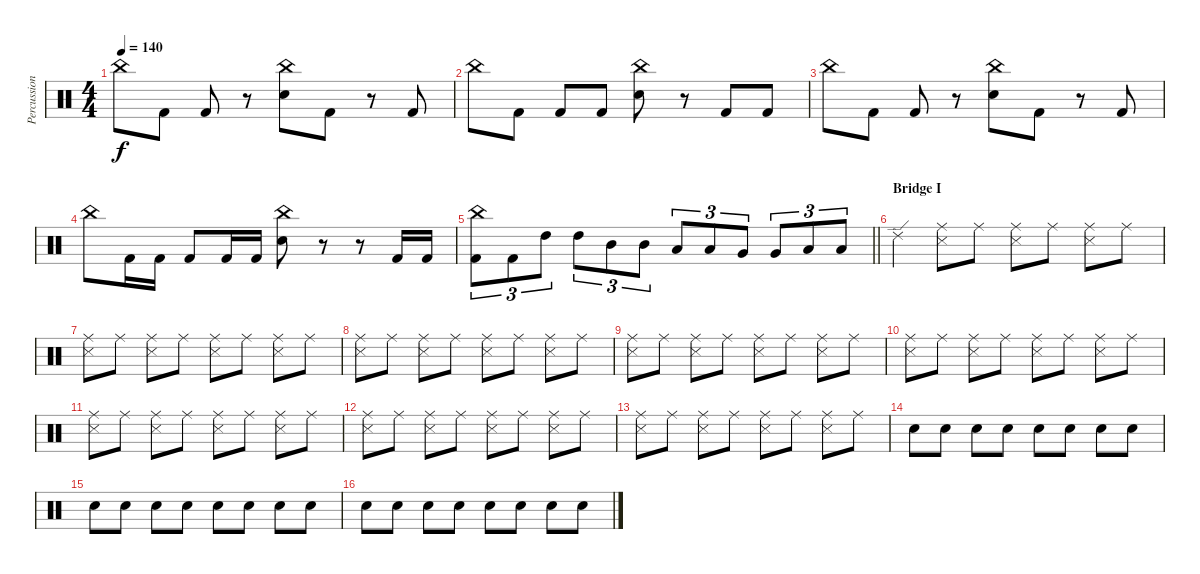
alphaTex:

\track ("Percussion" "Percussion") {instrument percussion}
\staff {score}
\articulation defaults
\ts (4 4)
\tempo 140
\clef neutral
\ks c "China (hit)".8{dy f} "Kick (hit) 2".8 "Kick (hit) 2".8
r.8 ("China (hit)" "Snare (hit) 2").8 "Kick (hit) 2".8 r.8 "Kick (hit) 2".8 |
"China (hit)".8 "Kick (hit) 2".8 "Kick (hit) 2".8 "Kick (hit) 2".8 ("China (hit)" "Snare (hit) 2").8 r.8 "Kick (hit) 2".8 "Kick (hit) 2".8 |
"China (hit)".8 "Kick (hit) 2".8 "Kick (hit) 2".8 r.8 ("China (hit)" "Snare (hit) 2").8 "Kick (hit) 2".8 r.8 "Kick (hit) 2".8 |
"China (hit)".8 "Kick (hit) 2".16 "Kick (hit) 2".16 "Kick (hit) 2".8 "Kick (hit) 2".16 "Kick (hit) 2".16 ("China (hit)" "Snare (hit) 2").8 r.8 r.8 "Kick (hit) 2".16 "Kick (hit) 2".16 |
\barLineRight lightlight
("China (hit)" "Kick (hit) 2").8{tu (3 2)} "Kick (hit) 2".8{tu (3 2)} "High Tom (hit)".8{tu (3 2)} "High Tom (hit)".8{tu (3 2)} "Mid Tom (hit)".8{tu (3 2)} "Mid Tom (hit)".8{tu (3 2)} "Low Tom (hit)".8{tu (3 2)} "Low Tom (hit)".8{tu (3 2)} "Very Low Tom (hit)".8{tu (3 2)} "Very Low Tom (hit)".8{tu (3 2)} "Low Floor Tom (hit)".8{tu (3 2)} "Low Floor Tom (hit)".8{tu (3 2)} |
\section ("" "Bridge I")
"Ride (edge) 2".4{volume 11} ("Ride (middle)" "Snare (side stick) 3").8 "Ride (middle)".8 ("Ride (middle)" "Snare (side stick) 3").8 "Ride (middle)".8 ("Ride (middle)" "Snare (side stick) 3").8 "Ride (middle)".8 |
("Ride (middle)" "Snare (side stick) 3").8 "Ride (middle)".8 ("Ride (middle)" "Snare (side stick) 3").8 "Ride (middle)".8 ("Ride (middle)" "Snare (side stick) 3").8 "Ride (middle)".8 ("Ride (middle)" "Snare (side stick) 3").8 "Ride (middle)".8 |
("Ride (middle)" "Snare (side stick) 3").8 "Ride (middle)".8 ("Ride (middle)" "Snare (side stick) 3").8 "Ride (middle)".8 ("Ride (middle)" "Snare (side stick) 3").8 "Ride (middle)".8 ("Ride (middle)" "Snare (side stick) 3").8 "Ride (middle)".8 |
("Ride (middle)" "Snare (side stick) 3").8 "Ride (middle)".8 ("Ride (middle)" "Snare (side stick) 3").8 "Ride (middle)".8 ("Ride (middle)" "Snare (side stick) 3").8 "Ride (middle)".8 ("Ride (middle)" "Snare (side stick) 3").8 "Ride (middle)".8 |
("Ride (middle)" "Snare (side stick) 3").8 "Ride (middle)".8 ("Ride (middle)" "Snare (side stick) 3").8 "Ride (middle)".8 ("Ride (middle)" "Snare (side stick) 3").8 "Ride (middle)".8 ("Ride (middle)" "Snare (side stick) 3").8 "Ride (middle)".8 |
("Ride (middle)" "Snare (side stick) 3").8 "Ride (middle)".8 ("Ride (middle)" "Snare (side stick) 3").8 "Ride (middle)".8 ("Ride (middle)" "Snare (side stick) 3").8 "Ride (middle)".8 ("Ride (middle)" "Snare (side stick) 3").8 "Ride (middle)".8 |
("Ride (middle)" "Snare (side stick) 3").8 "Ride (middle)".8 ("Ride (middle)" "Snare (side stick) 3").8 "Ride (middle)".8 ("Ride (middle)" "Snare (side stick) 3").8 "Ride (middle)".8 ("Ride (middle)" "Snare (side stick) 3").8 "Ride (middle)".8 |
("Ride (middle)" "Snare (side stick) 3").8 "Ride (middle)".8 ("Ride (middle)" "Snare (side stick) 3").8 "Ride (middle)".8 ("Ride (middle)" "Snare (side stick) 3").8 "Ride (middle)".8 ("Ride (middle)" "Snare (side stick) 3").8 "Ride (middle)".8 |
"Snare (hit) 2".8{volume 9} "Snare (hit) 2".8 "Snare (hit) 2".8{volume 16} "Snare (hit) 2".8 "Snare (hit) 2".8 "Snare (hit) 2".8 "Snare (hit) 2".8 "Snare (hit) 2".8 |
"Snare (hit) 2".8 "Snare (hit) 2".8 "Snare (hit) 2".8 "Snare (hit) 2".8 "Snare (hit) 2".8 "Snare (hit) 2".8 "Snare (hit) 2".8 "Snare (hit) 2".8 |
"Snare (hit) 2".8 "Snare (hit) 2".8 "Snare (hit) 2".8 "Snare (hit) 2".8 "Snare (hit) 2".8 "Snare (hit) 2".8 "Snare (hit) 2".8 "Snare (hit) 2".8
